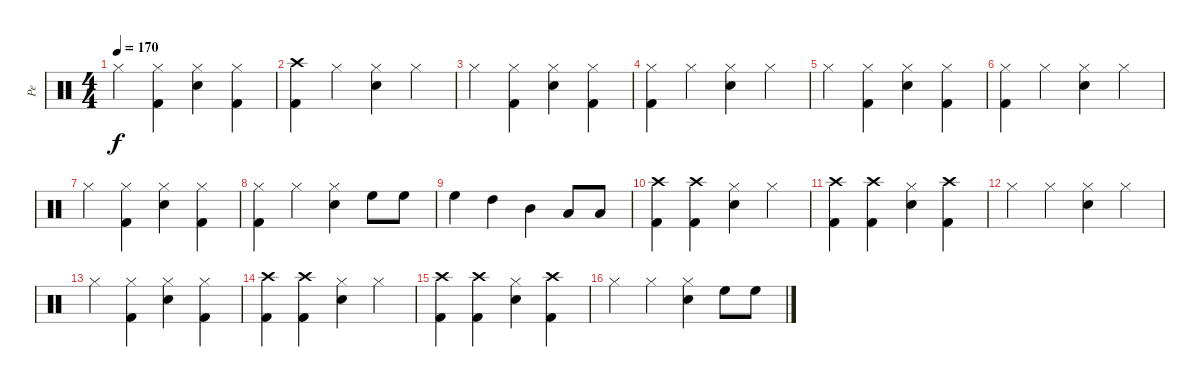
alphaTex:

\track ("Pe" "Pe") {instrument percussion}
\staff {score}
\articulation defaults
\ts (4 4)
\tempo 170
\clef neutral
\ks c "Hi-Hat (closed)".4{dy f}
("Kick (hit) 2" "Hi-Hat (closed)").4 ("Snare (hit) 2" "Hi-Hat (closed)").4 ("Kick (hit) 2" "Hi-Hat (closed)").4 |
("Kick (hit) 2" "Crash high (hit)").4 "Hi-Hat (closed)".4 ("Snare (hit) 2" "Hi-Hat (closed)").4 "Hi-Hat (closed)".4 |
"Hi-Hat (closed)".4 ("Kick (hit) 2" "Hi-Hat (closed)").4 ("Snare (hit) 2" "Hi-Hat (closed)").4 ("Kick (hit) 2" "Hi-Hat (closed)").4 |
("Kick (hit) 2" "Hi-Hat (closed)").4 "Hi-Hat (closed)".4 ("Snare (hit) 2" "Hi-Hat (closed)").4 "Hi-Hat (closed)".4 |
"Hi-Hat (closed)".4 ("Kick (hit) 2" "Hi-Hat (closed)").4 ("Snare (hit) 2" "Hi-Hat (closed)").4 ("Kick (hit) 2" "Hi-Hat (closed)").4 |
("Kick (hit) 2" "Hi-Hat (closed)").4 "Hi-Hat (closed)".4 ("Snare (hit) 2" "Hi-Hat (closed)").4 "Hi-Hat (closed)".4 |
"Hi-Hat (closed)".4 ("Kick (hit) 2" "Hi-Hat (closed)").4 ("Snare (hit) 2" "Hi-Hat (closed)").4 ("Kick (hit) 2" "Hi-Hat (closed)").4 |
("Kick (hit) 2" "Hi-Hat (closed)").4 "Hi-Hat (closed)".4 ("Snare (hit) 2" "Hi-Hat (closed)").4 "High Floor Tom (hit)".8 "High Floor Tom (hit)".8 |
"High Floor Tom (hit)".4 "High Tom (hit)".4 "Mid Tom (hit)".4 "Low Tom (hit)".8 "Low Tom (hit)".8 |
("Kick (hit) 2" "Crash high (hit)").4 ("Kick (hit) 2" "Crash high (hit)").4 ("Snare (hit) 2" "Hi-Hat (closed)").4 "Hi-Hat (closed)".4 |
("Kick (hit) 2" "Crash high (hit)").4 ("Kick (hit) 2" "Crash high (hit)").4 ("Snare (hit) 2" "Hi-Hat (closed)").4 ("Kick (hit) 2" "Crash high (hit)").4 |
"Hi-Hat (closed)".4 "Hi-Hat (closed)".4 ("Snare (hit) 2" "Hi-Hat (closed)").4 "Hi-Hat (closed)".4 |
"Hi-Hat (closed)".4 ("Kick (hit) 2" "Hi-Hat (closed)").4 ("Snare (hit) 2" "Hi-Hat (closed)").4 ("Kick (hit) 2" "Hi-Hat (closed)").4 |
("Kick (hit) 2" "Crash high (hit)").4 ("Kick (hit) 2" "Crash high (hit)").4 ("Snare (hit) 2" "Hi-Hat (closed)").4 "Hi-Hat (closed)".4 |
("Kick (hit) 2" "Crash high (hit)").4 ("Kick (hit) 2" "Crash high (hit)").4 ("Snare (hit) 2" "Hi-Hat (closed)").4 ("Kick (hit) 2" "Crash high (hit)").4 |
"Hi-Hat (closed)".4 "Hi-Hat (closed)".4 ("Snare (hit) 2" "Hi-Hat (closed)").4 "High Floor Tom (hit)".8 "High Floor Tom (hit)".8
